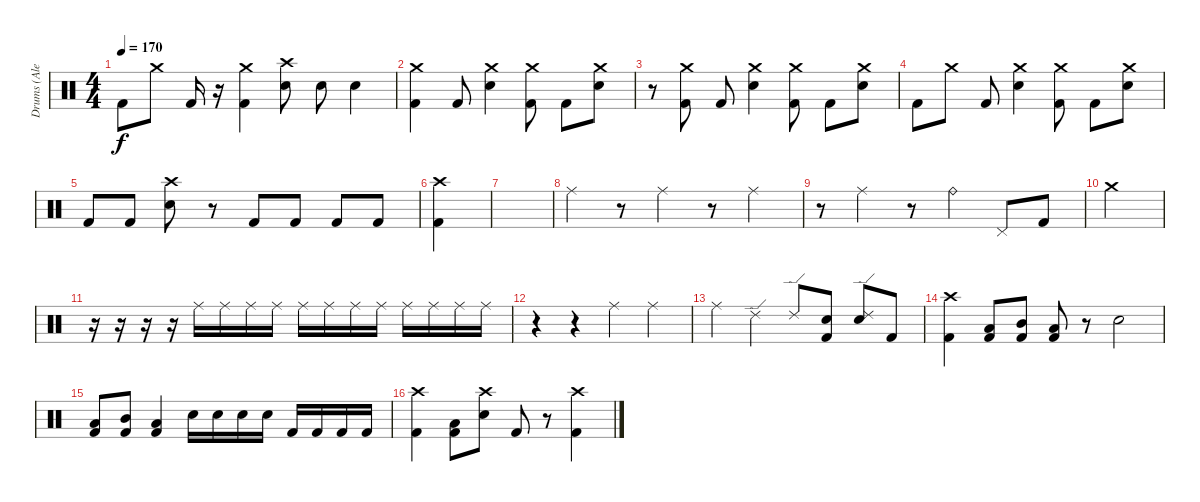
\track ("Drums (Alex Shelnutt)" "Drums (Ale") {instrument percussion}
\staff {score}
\articulation defaults
\ts (4 4)
\tempo 170
\clef neutral
\ks c "Kick (hit) 2".8{dy f} "Crash medium (hit)".8 "Kick (hit) 2".16
r.16 ("Crash medium (hit)" "Kick (hit) 2").4 ("Crash high (hit)" "Electric Snare (hit)").8 "Electric Snare (hit)".8 "Electric Snare (hit)".4 |
("Crash medium (hit)" "Kick (hit) 2").4 "Kick (hit) 2".8 ("Crash medium (hit)" "Electric Snare (hit)").4 ("Crash medium (hit)" "Kick (hit) 2").8 "Kick (hit) 2".8 ("Crash medium (hit)" "Electric Snare (hit)").8 |
r.8 ("Crash medium (hit)" "Kick (hit) 2").8 "Kick (hit) 2".8 ("Crash medium (hit)" "Electric Snare (hit)").4 ("Crash medium (hit)" "Kick (hit) 2").8 "Kick (hit) 2".8 ("Crash medium (hit)" "Electric Snare (hit)").8 |
"Kick (hit) 2".8 "Crash medium (hit)".8 "Kick (hit) 2".8 ("Crash medium (hit)" "Electric Snare (hit)").4 ("Crash medium (hit)" "Kick (hit) 2").8 "Kick (hit) 2".8 ("Crash medium (hit)" "Electric Snare (hit)").8 |
"Kick (hit) 2".8 "Kick (hit) 2".8 ("Crash high (hit)" "Electric Snare (hit)").8 r.8 "Kick (hit) 2".8 "Kick (hit) 2".8 "Kick (hit) 2".8 "Kick (hit) 2".8 |
("Crash high (hit)" "Kick (hit) 2").4 |
|
"Ride (middle)".4 r.8 "Ride (middle)".4 r.8 "Ride (middle)".4 |
r.8 "Ride (middle)".4 r.8 "Ride (bell)".4 "Pedal Hi-Hat (hit)".8 "Kick (hit) 2".8 |
"Crash medium (hit)".4 |
r.16 r.16 r.16 r.16 "Ride (middle)".16 "Ride (middle)".16 "Ride (middle)".16 "Ride (middle)".16 "Ride (middle)".16 "Ride (middle)".16 "Ride (middle)".16 "Ride (middle)".16 "Ride (middle)".16 "Ride (middle)".16 "Ride (middle)".16 "Ride (middle)".16 |
r.4 r.4 "Ride (middle)".4 "Ride (middle)".4 |
"Ride (middle)".4 "Ride (edge) 2".4 "Ride (edge) 2".8 ("Electric Snare (hit)" "Kick (hit) 2").8 ("Ride (edge) 2" "Electric Snare (hit)").8 "Kick (hit) 2".8 |
("Crash high (hit)" "Kick (hit) 2").4 ("Low Tom (hit)" "Kick (hit) 2").8 ("Mid Tom (hit)" "Kick (hit) 2").8 ("Low Tom (hit)" "Kick (hit) 2").8 r.8 "Electric Snare (hit)".2 |
("Low Tom (hit)" "Kick (hit) 2").8 ("Mid Tom (hit)" "Kick (hit) 2").8 ("Low Tom (hit)" "Kick (hit) 2").4 "Electric Snare (hit)".16 "Electric Snare (hit)".16 "Electric Snare (hit)".16 "Electric Snare (hit)".16 "Kick (hit) 2".16 "Kick (hit) 2".16 "Kick (hit) 2".16 "Kick (hit) 2".16 |
("Crash high (hit)" "Kick (hit) 2").4 ("Low Tom (hit)" "Kick (hit) 2").8 ("Crash high (hit)" "Electric Snare (hit)").8 "Kick (hit) 2".8 r.8 ("Crash high (hit)" "Kick (hit) 2").4
